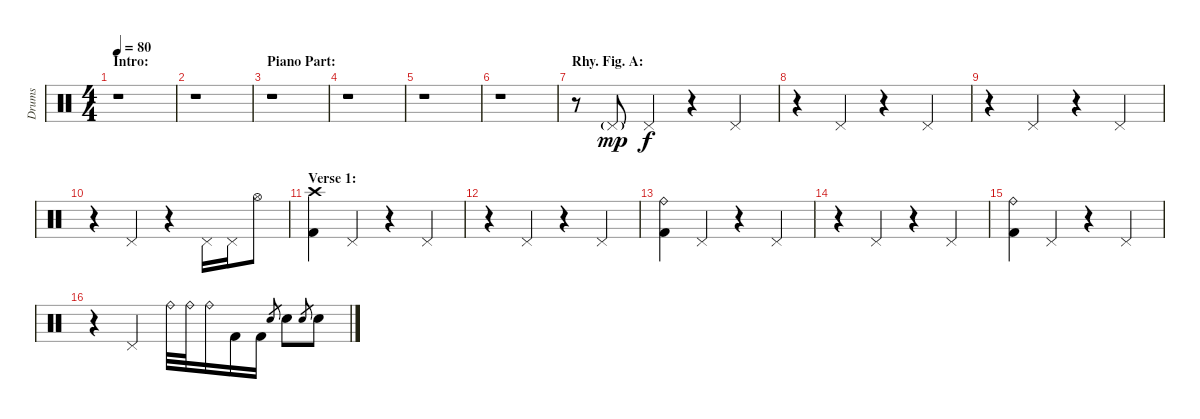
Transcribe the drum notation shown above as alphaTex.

\track ("Drums" "Drums") {instrument percussion}
\staff {score}
\articulation defaults
\ts (4 4)
\section ("" "Intro:")
\tempo 80
\clef neutral
\ks c
r.1{dy mp} |
r.1 |
\section ("" "Piano Part:")
r.1 |
r.1 |
r.1 |
r.1 |
\section ("" "Rhy. Fig. A:")
r.8 "Pedal Hi-Hat (hit)"{g}.8 "Pedal Hi-Hat (hit)".4{dy f} r.4 "Pedal Hi-Hat (hit)".4 |
r.4 "Pedal Hi-Hat (hit)".4 r.4 "Pedal Hi-Hat (hit)".4 |
r.4 "Pedal Hi-Hat (hit)".4 r.4 "Pedal Hi-Hat (hit)".4 |
r.4 "Pedal Hi-Hat (hit)".4 r.4 "Pedal Hi-Hat (hit)".16 "Pedal Hi-Hat (hit)".16 "Hi-Hat (open)".8 |
\section ("" "Verse 1:")
("Crash high (hit)" "Kick (hit) 2").4 "Pedal Hi-Hat (hit)".4 r.4 "Pedal Hi-Hat (hit)".4 |
r.4 "Pedal Hi-Hat (hit)".4 r.4 "Pedal Hi-Hat (hit)".4 |
("Ride (bell)" "Kick (hit) 2").4 "Pedal Hi-Hat (hit)".4 r.4 "Pedal Hi-Hat (hit)".4 |
r.4 "Pedal Hi-Hat (hit)".4 r.4 "Pedal Hi-Hat (hit)".4 |
("Ride (bell)" "Kick (hit) 2").4 "Pedal Hi-Hat (hit)".4 r.4 "Pedal Hi-Hat (hit)".4 |
r.4 "Pedal Hi-Hat (hit)".4 "Ride (bell)".32 "Ride (bell)".32 "Ride (bell)".16 "Kick (hit) 2".16 "Kick (hit) 2".16 "Electric Snare (hit)".8{gr} "Electric Snare (hit)".8 "Electric Snare (hit)".8{gr} "Electric Snare (hit)".8
